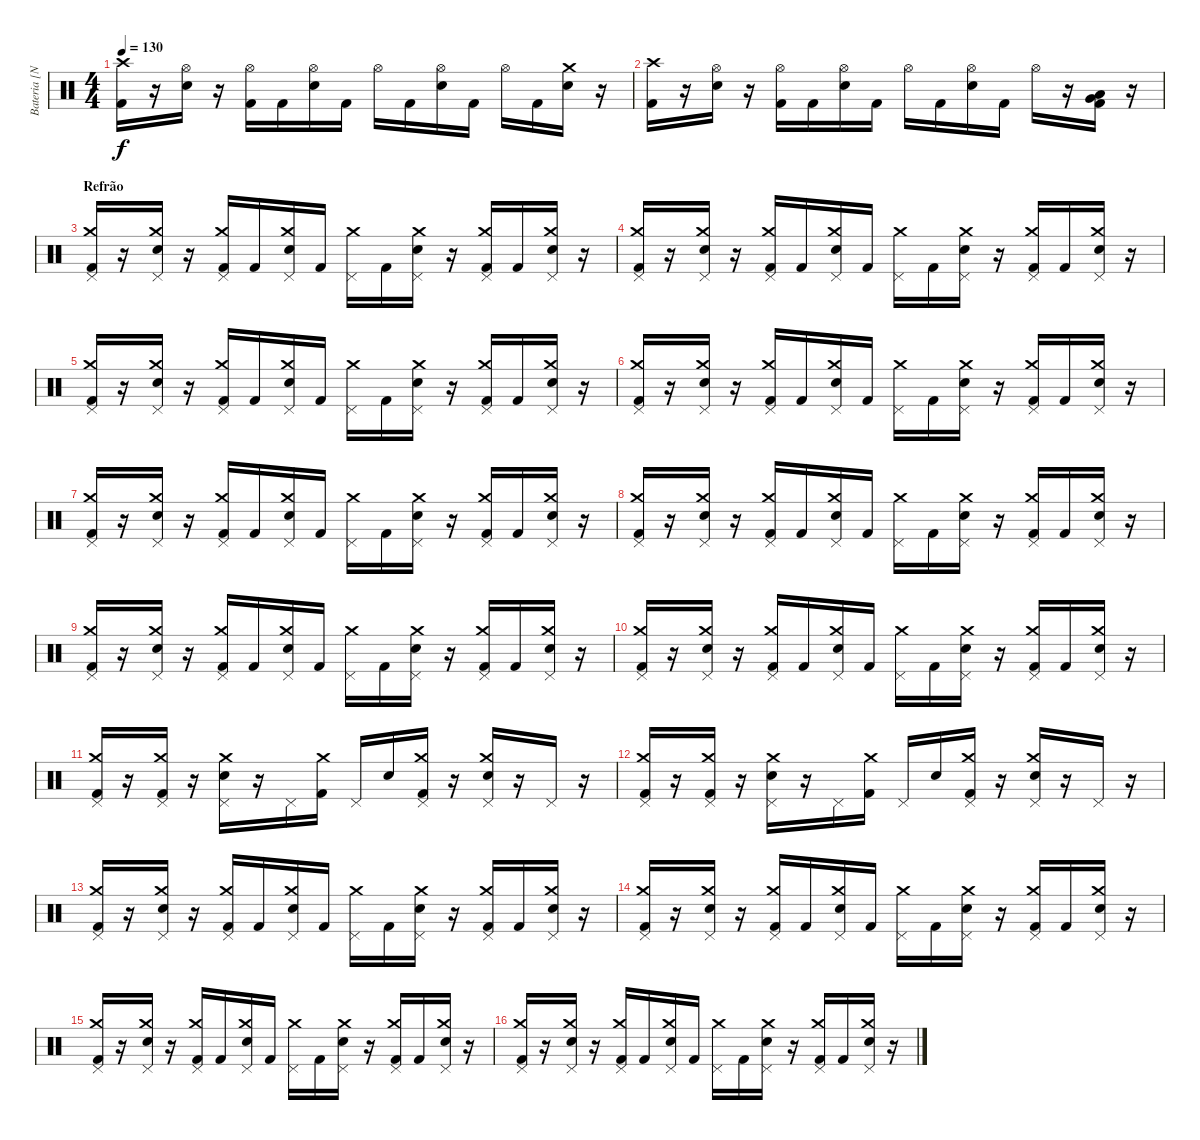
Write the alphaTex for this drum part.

\track ("Bateria [Nô]" "Bateria [N") {instrument percussion}
\staff {score}
\articulation defaults
\ts (4 4)
\tempo 130
\clef neutral
\ks c
("Crash high (hit)" "Kick (hit) 2").16{dy f} r.16 ("Hi-Hat (open)" "Snare (hit) 2").16 r.16 ("Hi-Hat (open)" "Kick (hit) 2").16 "Kick (hit) 2".16 ("Hi-Hat (open)" "Snare (hit) 2").16 "Kick (hit) 2".16 "Hi-Hat (open)".16 "Kick (hit) 2".16 ("Hi-Hat (open)" "Snare (hit) 2").16 "Kick (hit) 2".16 "Hi-Hat (open)".16 "Kick (hit) 2".16 ("Crash medium (hit)" "Snare (hit) 2").16 r.16 |
("Crash high (hit)" "Kick (hit) 2").16 r.16 ("Hi-Hat (open)" "Snare (hit) 2").16 r.16 ("Hi-Hat (open)" "Kick (hit) 2").16 "Kick (hit) 2".16 ("Hi-Hat (open)" "Snare (hit) 2").16 "Kick (hit) 2".16 "Hi-Hat (open)".16 "Kick (hit) 2".16 ("Hi-Hat (open)" "Snare (hit) 2").16 "Kick (hit) 2".16 "Hi-Hat (open)".16 r.16 ("Very Low Tom (hit)" "Low Floor Tom (hit)" "Kick (hit) 2").16 r.16 |
\section ("" "Refrão")
("Crash medium (hit)" "Pedal Hi-Hat (hit)" "Kick (hit) 2").16 r.16 ("Crash medium (hit)" "Pedal Hi-Hat (hit)" "Snare (hit) 2").16 r.16 ("Crash medium (hit)" "Pedal Hi-Hat (hit)" "Kick (hit) 2").16 "Kick (hit) 2".16 ("Crash medium (hit)" "Pedal Hi-Hat (hit)" "Snare (hit) 2").16 "Kick (hit) 2".16 ("Crash medium (hit)" "Pedal Hi-Hat (hit)").16 "Kick (hit) 2".16 ("Crash medium (hit)" "Pedal Hi-Hat (hit)" "Snare (hit) 2").16 r.16 ("Crash medium (hit)" "Pedal Hi-Hat (hit)" "Kick (hit) 2").16 "Kick (hit) 2".16 ("Crash medium (hit)" "Pedal Hi-Hat (hit)" "Snare (hit) 2").16 r.16 |
("Crash medium (hit)" "Pedal Hi-Hat (hit)" "Kick (hit) 2").16 r.16 ("Crash medium (hit)" "Pedal Hi-Hat (hit)" "Snare (hit) 2").16 r.16 ("Crash medium (hit)" "Pedal Hi-Hat (hit)" "Kick (hit) 2").16 "Kick (hit) 2".16 ("Crash medium (hit)" "Pedal Hi-Hat (hit)" "Snare (hit) 2").16 "Kick (hit) 2".16 ("Crash medium (hit)" "Pedal Hi-Hat (hit)").16 "Kick (hit) 2".16 ("Crash medium (hit)" "Pedal Hi-Hat (hit)" "Snare (hit) 2").16 r.16 ("Crash medium (hit)" "Pedal Hi-Hat (hit)" "Kick (hit) 2").16 "Kick (hit) 2".16 ("Crash medium (hit)" "Pedal Hi-Hat (hit)" "Snare (hit) 2").16 r.16 |
("Crash medium (hit)" "Pedal Hi-Hat (hit)" "Kick (hit) 2").16 r.16 ("Crash medium (hit)" "Pedal Hi-Hat (hit)" "Snare (hit) 2").16 r.16 ("Crash medium (hit)" "Pedal Hi-Hat (hit)" "Kick (hit) 2").16 "Kick (hit) 2".16 ("Crash medium (hit)" "Pedal Hi-Hat (hit)" "Snare (hit) 2").16 "Kick (hit) 2".16 ("Crash medium (hit)" "Pedal Hi-Hat (hit)").16 "Kick (hit) 2".16 ("Crash medium (hit)" "Pedal Hi-Hat (hit)" "Snare (hit) 2").16 r.16 ("Crash medium (hit)" "Pedal Hi-Hat (hit)" "Kick (hit) 2").16 "Kick (hit) 2".16 ("Crash medium (hit)" "Pedal Hi-Hat (hit)" "Snare (hit) 2").16 r.16 |
("Crash medium (hit)" "Pedal Hi-Hat (hit)" "Kick (hit) 2").16 r.16 ("Crash medium (hit)" "Pedal Hi-Hat (hit)" "Snare (hit) 2").16 r.16 ("Crash medium (hit)" "Pedal Hi-Hat (hit)" "Kick (hit) 2").16 "Kick (hit) 2".16 ("Crash medium (hit)" "Pedal Hi-Hat (hit)" "Snare (hit) 2").16 "Kick (hit) 2".16 ("Crash medium (hit)" "Pedal Hi-Hat (hit)").16 "Kick (hit) 2".16 ("Crash medium (hit)" "Pedal Hi-Hat (hit)" "Snare (hit) 2").16 r.16 ("Crash medium (hit)" "Pedal Hi-Hat (hit)" "Kick (hit) 2").16 "Kick (hit) 2".16 ("Crash medium (hit)" "Pedal Hi-Hat (hit)" "Snare (hit) 2").16 r.16 |
("Crash medium (hit)" "Pedal Hi-Hat (hit)" "Kick (hit) 2").16 r.16 ("Crash medium (hit)" "Pedal Hi-Hat (hit)" "Snare (hit) 2").16 r.16 ("Crash medium (hit)" "Pedal Hi-Hat (hit)" "Kick (hit) 2").16 "Kick (hit) 2".16 ("Crash medium (hit)" "Pedal Hi-Hat (hit)" "Snare (hit) 2").16 "Kick (hit) 2".16 ("Crash medium (hit)" "Pedal Hi-Hat (hit)").16 "Kick (hit) 2".16 ("Crash medium (hit)" "Pedal Hi-Hat (hit)" "Snare (hit) 2").16 r.16 ("Crash medium (hit)" "Pedal Hi-Hat (hit)" "Kick (hit) 2").16 "Kick (hit) 2".16 ("Crash medium (hit)" "Pedal Hi-Hat (hit)" "Snare (hit) 2").16 r.16 |
("Crash medium (hit)" "Pedal Hi-Hat (hit)" "Kick (hit) 2").16 r.16 ("Crash medium (hit)" "Pedal Hi-Hat (hit)" "Snare (hit) 2").16 r.16 ("Crash medium (hit)" "Pedal Hi-Hat (hit)" "Kick (hit) 2").16 "Kick (hit) 2".16 ("Crash medium (hit)" "Pedal Hi-Hat (hit)" "Snare (hit) 2").16 "Kick (hit) 2".16 ("Crash medium (hit)" "Pedal Hi-Hat (hit)").16 "Kick (hit) 2".16 ("Crash medium (hit)" "Pedal Hi-Hat (hit)" "Snare (hit) 2").16 r.16 ("Crash medium (hit)" "Pedal Hi-Hat (hit)" "Kick (hit) 2").16 "Kick (hit) 2".16 ("Crash medium (hit)" "Pedal Hi-Hat (hit)" "Snare (hit) 2").16 r.16 |
("Crash medium (hit)" "Pedal Hi-Hat (hit)" "Kick (hit) 2").16 r.16 ("Crash medium (hit)" "Pedal Hi-Hat (hit)" "Snare (hit) 2").16 r.16 ("Crash medium (hit)" "Pedal Hi-Hat (hit)" "Kick (hit) 2").16 "Kick (hit) 2".16 ("Crash medium (hit)" "Pedal Hi-Hat (hit)" "Snare (hit) 2").16 "Kick (hit) 2".16 ("Crash medium (hit)" "Pedal Hi-Hat (hit)").16 "Kick (hit) 2".16 ("Crash medium (hit)" "Pedal Hi-Hat (hit)" "Snare (hit) 2").16 r.16 ("Crash medium (hit)" "Pedal Hi-Hat (hit)" "Kick (hit) 2").16 "Kick (hit) 2".16 ("Crash medium (hit)" "Pedal Hi-Hat (hit)" "Snare (hit) 2").16 r.16 |
("Crash medium (hit)" "Pedal Hi-Hat (hit)" "Kick (hit) 2").16 r.16 ("Crash medium (hit)" "Pedal Hi-Hat (hit)" "Snare (hit) 2").16 r.16 ("Crash medium (hit)" "Pedal Hi-Hat (hit)" "Kick (hit) 2").16 "Kick (hit) 2".16 ("Crash medium (hit)" "Pedal Hi-Hat (hit)" "Snare (hit) 2").16 "Kick (hit) 2".16 ("Crash medium (hit)" "Pedal Hi-Hat (hit)").16 "Kick (hit) 2".16 ("Crash medium (hit)" "Pedal Hi-Hat (hit)" "Snare (hit) 2").16 r.16 ("Crash medium (hit)" "Pedal Hi-Hat (hit)" "Kick (hit) 2").16 "Kick (hit) 2".16 ("Crash medium (hit)" "Pedal Hi-Hat (hit)" "Snare (hit) 2").16 r.16 |
("Crash medium (hit)" "Pedal Hi-Hat (hit)" "Kick (hit) 2").16 r.16 ("Crash medium (hit)" "Pedal Hi-Hat (hit)" "Kick (hit) 2").16 r.16 ("Crash medium (hit)" "Pedal Hi-Hat (hit)" "Snare (hit) 2").16 r.16 "Pedal Hi-Hat (hit)".16 ("Crash medium (hit)" "Kick (hit) 2").16 "Pedal Hi-Hat (hit)".16 "Snare (hit) 2".16 ("Crash medium (hit)" "Pedal Hi-Hat (hit)" "Kick (hit) 2").16 r.16 ("Crash medium (hit)" "Pedal Hi-Hat (hit)" "Snare (hit) 2").16 r.16 "Pedal Hi-Hat (hit)".16 r.16 |
("Crash medium (hit)" "Pedal Hi-Hat (hit)" "Kick (hit) 2").16 r.16 ("Crash medium (hit)" "Pedal Hi-Hat (hit)" "Kick (hit) 2").16 r.16 ("Crash medium (hit)" "Pedal Hi-Hat (hit)" "Snare (hit) 2").16 r.16 "Pedal Hi-Hat (hit)".16 ("Crash medium (hit)" "Kick (hit) 2").16 "Pedal Hi-Hat (hit)".16 "Snare (hit) 2".16 ("Crash medium (hit)" "Pedal Hi-Hat (hit)" "Kick (hit) 2").16 r.16 ("Crash medium (hit)" "Pedal Hi-Hat (hit)" "Snare (hit) 2").16 r.16 "Pedal Hi-Hat (hit)".16 r.16 |
("Crash medium (hit)" "Pedal Hi-Hat (hit)" "Kick (hit) 2").16 r.16 ("Crash medium (hit)" "Pedal Hi-Hat (hit)" "Snare (hit) 2").16 r.16 ("Crash medium (hit)" "Pedal Hi-Hat (hit)" "Kick (hit) 2").16 "Kick (hit) 2".16 ("Crash medium (hit)" "Pedal Hi-Hat (hit)" "Snare (hit) 2").16 "Kick (hit) 2".16 ("Crash medium (hit)" "Pedal Hi-Hat (hit)").16 "Kick (hit) 2".16 ("Crash medium (hit)" "Pedal Hi-Hat (hit)" "Snare (hit) 2").16 r.16 ("Crash medium (hit)" "Pedal Hi-Hat (hit)" "Kick (hit) 2").16 "Kick (hit) 2".16 ("Crash medium (hit)" "Pedal Hi-Hat (hit)" "Snare (hit) 2").16 r.16 |
("Crash medium (hit)" "Pedal Hi-Hat (hit)" "Kick (hit) 2").16 r.16 ("Crash medium (hit)" "Pedal Hi-Hat (hit)" "Snare (hit) 2").16 r.16 ("Crash medium (hit)" "Pedal Hi-Hat (hit)" "Kick (hit) 2").16 "Kick (hit) 2".16 ("Crash medium (hit)" "Pedal Hi-Hat (hit)" "Snare (hit) 2").16 "Kick (hit) 2".16 ("Crash medium (hit)" "Pedal Hi-Hat (hit)").16 "Kick (hit) 2".16 ("Crash medium (hit)" "Pedal Hi-Hat (hit)" "Snare (hit) 2").16 r.16 ("Crash medium (hit)" "Pedal Hi-Hat (hit)" "Kick (hit) 2").16 "Kick (hit) 2".16 ("Crash medium (hit)" "Pedal Hi-Hat (hit)" "Snare (hit) 2").16 r.16 |
("Crash medium (hit)" "Pedal Hi-Hat (hit)" "Kick (hit) 2").16 r.16 ("Crash medium (hit)" "Pedal Hi-Hat (hit)" "Snare (hit) 2").16 r.16 ("Crash medium (hit)" "Pedal Hi-Hat (hit)" "Kick (hit) 2").16 "Kick (hit) 2".16 ("Crash medium (hit)" "Pedal Hi-Hat (hit)" "Snare (hit) 2").16 "Kick (hit) 2".16 ("Crash medium (hit)" "Pedal Hi-Hat (hit)").16 "Kick (hit) 2".16 ("Crash medium (hit)" "Pedal Hi-Hat (hit)" "Snare (hit) 2").16 r.16 ("Crash medium (hit)" "Pedal Hi-Hat (hit)" "Kick (hit) 2").16 "Kick (hit) 2".16 ("Crash medium (hit)" "Pedal Hi-Hat (hit)" "Snare (hit) 2").16 r.16 |
("Crash medium (hit)" "Pedal Hi-Hat (hit)" "Kick (hit) 2").16 r.16 ("Crash medium (hit)" "Pedal Hi-Hat (hit)" "Snare (hit) 2").16 r.16 ("Crash medium (hit)" "Pedal Hi-Hat (hit)" "Kick (hit) 2").16 "Kick (hit) 2".16 ("Crash medium (hit)" "Pedal Hi-Hat (hit)" "Snare (hit) 2").16 "Kick (hit) 2".16 ("Crash medium (hit)" "Pedal Hi-Hat (hit)").16 "Kick (hit) 2".16 ("Crash medium (hit)" "Pedal Hi-Hat (hit)" "Snare (hit) 2").16 r.16 ("Crash medium (hit)" "Pedal Hi-Hat (hit)" "Kick (hit) 2").16 "Kick (hit) 2".16 ("Crash medium (hit)" "Pedal Hi-Hat (hit)" "Snare (hit) 2").16 r.16
